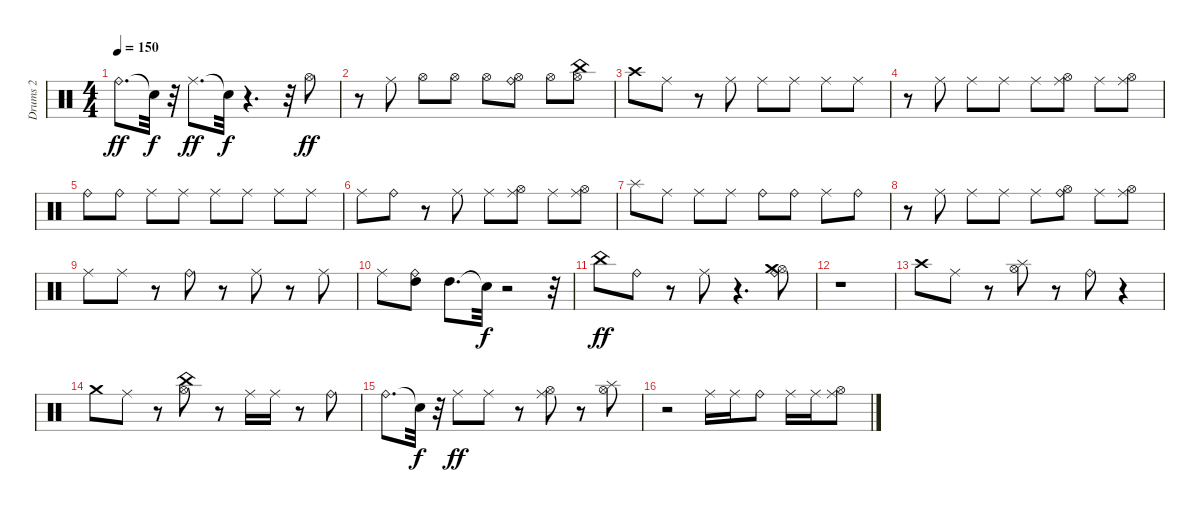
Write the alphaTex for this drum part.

\track ("Drums 2" "Drums 2") {instrument percussion}
\staff {score}
\articulation defaults
\ts (4 4)
\tempo 150
\clef neutral
\ks c "Ride (bell)".8{d dy ff} "Snare (hit)"{t}.32{dy f}
r.32 "Ride (middle)".8{d dy ff} "Snare (hit)"{t}.32{dy f} r.4{d} r.32 "Hi-Hat (open)".8{dy ff} |
r.8 "Ride (middle)".8 "Hi-Hat (open)".8 "Hi-Hat (open)".8 "Hi-Hat (open)".8 ("Hi-Hat (open)" "Ride (bell)").8 "Hi-Hat (open)".8 ("Hi-Hat (open)" "China (hit)").8 |
"Crash high (hit)".8 "Ride (middle)".8 r.8 "Ride (middle)".8 "Ride (middle)".8 "Ride (middle)".8 "Ride (middle)".8 "Ride (middle)".8 |
r.8 "Ride (middle)".8 "Ride (middle)".8 "Ride (middle)".8 "Ride (middle)".8 ("Hi-Hat (open)" "Ride (middle)").8 "Ride (middle)".8 ("Hi-Hat (open)" "Ride (middle)").8 |
"Ride (bell)".8 "Ride (bell)".8 "Ride (middle)".8 "Ride (middle)".8 "Ride (middle)".8 "Ride (middle)".8 "Ride (middle)".8 "Ride (middle)".8 |
"Ride (middle)".8 "Ride (bell)".8 r.8 "Ride (middle)".8 "Ride (middle)".8 ("Hi-Hat (open)" "Ride (middle)").8 "Ride (middle)".8 ("Hi-Hat (open)" "Ride (middle)").8 |
"Splash (hit)".8 "Ride (middle)".8 "Ride (middle)".8 "Ride (middle)".8 "Ride (bell)".8 "Ride (bell)".8 "Ride (middle)".8 "Ride (bell)".8 |
r.8 "Ride (middle)".8 "Ride (middle)".8 "Ride (middle)".8 "Ride (middle)".8 ("Hi-Hat (open)" "Ride (bell)").8 "Ride (middle)".8 ("Hi-Hat (open)" "Ride (middle)").8 |
"Ride (middle)".8 "Ride (middle)".8 r.8 "Ride (bell)".8 r.8 "Ride (middle)".8 r.8 "Ride (middle)".8 |
"Ride (middle)".8 ("High Tom (hit)" "Ride (bell)").8 "High Tom (hit)".8{d} "Snare (hit)"{t}.32{dy f} r.2 r.32 |
"China (hit)".8{dy ff} "Ride (bell)".8 r.8 "Ride (middle)".8 r.4{d} ("Hi-Hat (open)" "Ride (bell)" "Crash medium (hit)").8 |
r.1 |
"Crash high (hit)".8 "Ride (middle)".8 r.8 ("Hi-Hat (open)" "Splash (hit)").8 r.8 "Ride (bell)".8 r.4 |
"Crash medium (hit)".8 "Ride (middle)".8 r.8 ("Hi-Hat (open)" "China (hit)").8 r.8 "Ride (middle)".16 "Ride (middle)".16 r.8 "Ride (bell)".8 |
"Ride (bell)".8{d} "Snare (hit)"{t}.32{dy f} r.32 "Ride (middle)".8{dy ff} "Ride (middle)".8 r.8 ("Hi-Hat (open)" "Ride (middle)").8 r.8 ("Hi-Hat (open)" "Splash (hit)").8 |
r.2 "Ride (middle)".16 "Ride (middle)".16 "Ride (bell)".8 "Ride (middle)".16 "Ride (middle)".16 ("Hi-Hat (open)" "Ride (middle)").8
